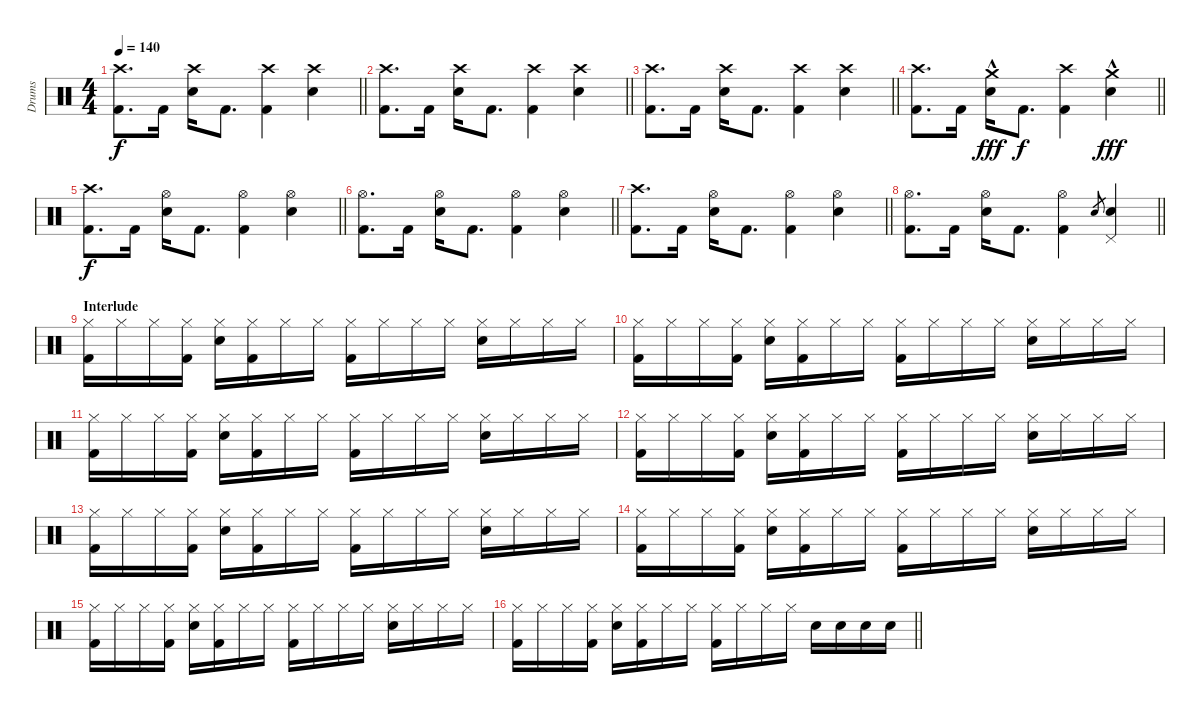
\track ("Drums" "Drums") {instrument percussion}
\staff {score}
\articulation defaults
\ts (4 4)
\tempo 140
\clef neutral
\barLineRight lightlight
\ks c
("Crash high (hit)" "Kick (hit) 2").8{d dy f} "Kick (hit) 2".16 ("Electric Snare (hit)" "Crash high (hit)").16 "Kick (hit) 2".8{d} ("Crash high (hit)" "Kick (hit) 2").4 ("Crash high (hit)" "Snare (hit) 2").4 |
\barLineRight lightlight
("Crash high (hit)" "Kick (hit) 2").8{d} "Kick (hit) 2".16 ("Electric Snare (hit)" "Crash high (hit)").16 "Kick (hit) 2".8{d} ("Crash high (hit)" "Kick (hit) 2").4 ("Crash high (hit)" "Snare (hit) 2").4 |
\barLineRight lightlight
("Crash high (hit)" "Kick (hit) 2").8{d} "Kick (hit) 2".16 ("Electric Snare (hit)" "Crash high (hit)").16 "Kick (hit) 2".8{d} ("Crash high (hit)" "Kick (hit) 2").4 ("Crash high (hit)" "Snare (hit) 2").4 |
\barLineRight lightlight
("Crash high (hit)" "Kick (hit) 2").8{d} "Kick (hit) 2".16 ("Electric Snare (hit)" "Crash medium (hit)"{hac}).16{dy fff} "Kick (hit) 2".8{d dy f} ("Crash high (hit)" "Kick (hit) 2").4 ("Crash medium (hit)"{hac} "Snare (hit) 2").4{dy fff} |
\barLineRight lightlight
("Crash high (hit)" "Kick (hit) 2").8{d dy f} "Kick (hit) 2".16 ("Electric Snare (hit)" "Hi-Hat (open)").16 "Kick (hit) 2".8{d} ("Hi-Hat (open)" "Kick (hit) 2").4 ("Hi-Hat (open)" "Snare (hit) 2").4 |
\barLineRight lightlight
("Hi-Hat (open)" "Kick (hit) 2").8{d} "Kick (hit) 2".16 ("Electric Snare (hit)" "Hi-Hat (open)").16 "Kick (hit) 2".8{d} ("Hi-Hat (open)" "Kick (hit) 2").4 ("Hi-Hat (open)" "Snare (hit) 2").4 |
\barLineRight lightlight
("Crash high (hit)" "Kick (hit) 2").8{d} "Kick (hit) 2".16 ("Electric Snare (hit)" "Hi-Hat (open)").16 "Kick (hit) 2".8{d} ("Hi-Hat (open)" "Kick (hit) 2").4 ("Hi-Hat (open)" "Snare (hit) 2").4 |
\barLineRight lightlight
("Hi-Hat (open)" "Kick (hit) 2").8{d} "Kick (hit) 2".16 ("Electric Snare (hit)" "Hi-Hat (open)").16 "Kick (hit) 2".8{d} ("Hi-Hat (open)" "Kick (hit) 2").4 "Snare (hit) 2".8{gr} ("Pedal Hi-Hat (hit)" "Snare (hit) 2").4 |
\section ("" "Interlude")
("Hi-Hat (closed)" "Kick (hit) 2").16 "Hi-Hat (closed)".16 "Hi-Hat (closed)".16 ("Hi-Hat (closed)" "Kick (hit) 2").16 ("Hi-Hat (closed)" "Electric Snare (hit)").16 ("Hi-Hat (closed)" "Kick (hit) 2").16 "Hi-Hat (closed)".16 "Hi-Hat (closed)".16 ("Hi-Hat (closed)" "Kick (hit) 2").16 "Hi-Hat (closed)".16 "Hi-Hat (closed)".16 "Hi-Hat (closed)".16 ("Hi-Hat (closed)" "Electric Snare (hit)").16 "Hi-Hat (closed)".16 "Hi-Hat (closed)".16 "Hi-Hat (closed)".16 |
("Hi-Hat (closed)" "Kick (hit) 2").16 "Hi-Hat (closed)".16 "Hi-Hat (closed)".16 ("Hi-Hat (closed)" "Kick (hit) 2").16 ("Hi-Hat (closed)" "Electric Snare (hit)").16 ("Hi-Hat (closed)" "Kick (hit) 2").16 "Hi-Hat (closed)".16 "Hi-Hat (closed)".16 ("Hi-Hat (closed)" "Kick (hit) 2").16 "Hi-Hat (closed)".16 "Hi-Hat (closed)".16 "Hi-Hat (closed)".16 ("Hi-Hat (closed)" "Electric Snare (hit)").16 "Hi-Hat (closed)".16 "Hi-Hat (closed)".16 "Hi-Hat (closed)".16 |
("Hi-Hat (closed)" "Kick (hit) 2").16 "Hi-Hat (closed)".16 "Hi-Hat (closed)".16 ("Hi-Hat (closed)" "Kick (hit) 2").16 ("Hi-Hat (closed)" "Electric Snare (hit)").16 ("Hi-Hat (closed)" "Kick (hit) 2").16 "Hi-Hat (closed)".16 "Hi-Hat (closed)".16 ("Hi-Hat (closed)" "Kick (hit) 2").16 "Hi-Hat (closed)".16 "Hi-Hat (closed)".16 "Hi-Hat (closed)".16 ("Hi-Hat (closed)" "Electric Snare (hit)").16 "Hi-Hat (closed)".16 "Hi-Hat (closed)".16 "Hi-Hat (closed)".16 |
("Hi-Hat (closed)" "Kick (hit) 2").16 "Hi-Hat (closed)".16 "Hi-Hat (closed)".16 ("Hi-Hat (closed)" "Kick (hit) 2").16 ("Hi-Hat (closed)" "Electric Snare (hit)").16 ("Hi-Hat (closed)" "Kick (hit) 2").16 "Hi-Hat (closed)".16 "Hi-Hat (closed)".16 ("Hi-Hat (closed)" "Kick (hit) 2").16 "Hi-Hat (closed)".16 "Hi-Hat (closed)".16 "Hi-Hat (closed)".16 ("Hi-Hat (closed)" "Electric Snare (hit)").16 "Hi-Hat (closed)".16 "Hi-Hat (closed)".16 "Hi-Hat (closed)".16 |
("Hi-Hat (closed)" "Kick (hit) 2").16 "Hi-Hat (closed)".16 "Hi-Hat (closed)".16 ("Hi-Hat (closed)" "Kick (hit) 2").16 ("Hi-Hat (closed)" "Electric Snare (hit)").16 ("Hi-Hat (closed)" "Kick (hit) 2").16 "Hi-Hat (closed)".16 "Hi-Hat (closed)".16 ("Hi-Hat (closed)" "Kick (hit) 2").16 "Hi-Hat (closed)".16 "Hi-Hat (closed)".16 "Hi-Hat (closed)".16 ("Hi-Hat (closed)" "Electric Snare (hit)").16 "Hi-Hat (closed)".16 "Hi-Hat (closed)".16 "Hi-Hat (closed)".16 |
("Hi-Hat (closed)" "Kick (hit) 2").16 "Hi-Hat (closed)".16 "Hi-Hat (closed)".16 ("Hi-Hat (closed)" "Kick (hit) 2").16 ("Hi-Hat (closed)" "Electric Snare (hit)").16 ("Hi-Hat (closed)" "Kick (hit) 2").16 "Hi-Hat (closed)".16 "Hi-Hat (closed)".16 ("Hi-Hat (closed)" "Kick (hit) 2").16 "Hi-Hat (closed)".16 "Hi-Hat (closed)".16 "Hi-Hat (closed)".16 ("Hi-Hat (closed)" "Electric Snare (hit)").16 "Hi-Hat (closed)".16 "Hi-Hat (closed)".16 "Hi-Hat (closed)".16 |
("Hi-Hat (closed)" "Kick (hit) 2").16 "Hi-Hat (closed)".16 "Hi-Hat (closed)".16 ("Hi-Hat (closed)" "Kick (hit) 2").16 ("Hi-Hat (closed)" "Electric Snare (hit)").16 ("Hi-Hat (closed)" "Kick (hit) 2").16 "Hi-Hat (closed)".16 "Hi-Hat (closed)".16 ("Hi-Hat (closed)" "Kick (hit) 2").16 "Hi-Hat (closed)".16 "Hi-Hat (closed)".16 "Hi-Hat (closed)".16 ("Hi-Hat (closed)" "Electric Snare (hit)").16 "Hi-Hat (closed)".16 "Hi-Hat (closed)".16 "Hi-Hat (closed)".16 |
\barLineRight lightlight
("Hi-Hat (closed)" "Kick (hit) 2").16 "Hi-Hat (closed)".16 "Hi-Hat (closed)".16 ("Hi-Hat (closed)" "Kick (hit) 2").16 ("Hi-Hat (closed)" "Electric Snare (hit)").16 ("Hi-Hat (closed)" "Kick (hit) 2").16 "Hi-Hat (closed)".16 "Hi-Hat (closed)".16 ("Hi-Hat (closed)" "Kick (hit) 2").16 "Hi-Hat (closed)".16 "Hi-Hat (closed)".16 "Hi-Hat (closed)".16 "Electric Snare (hit)".16 "Electric Snare (hit)".16 "Electric Snare (hit)".16 "Electric Snare (hit)".16
